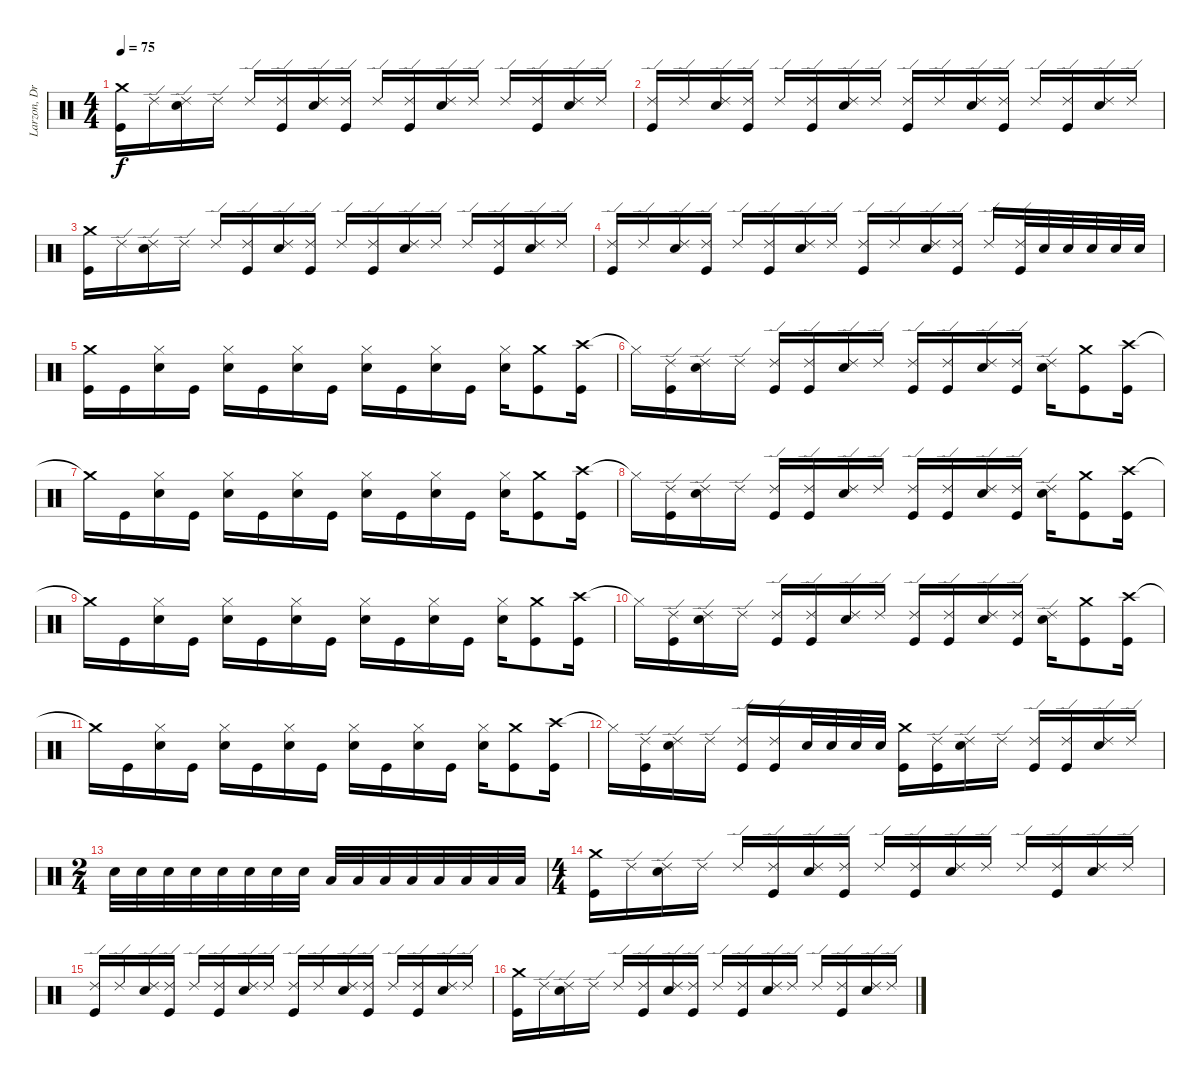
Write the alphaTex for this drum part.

\track ("Larzon, Drums" "Larzon, Dr") {instrument percussion}
\staff {score}
\articulation defaults
\ts (4 4)
\tempo 75
\clef neutral
\ks c
("Crash medium (hit)" "Kick (hit)").16{dy f} "Ride (edge) 2".16 ("Ride (edge) 2" "Snare (hit) 2").16 "Ride (edge) 2".16 "Ride (edge) 2".16 ("Ride (edge) 2" "Kick (hit)").16 ("Ride (edge) 2" "Snare (hit) 2").16 ("Ride (edge) 2" "Kick (hit)").16 "Ride (edge) 2".16 ("Ride (edge) 2" "Kick (hit)").16 ("Ride (edge) 2" "Snare (hit) 2").16 "Ride (edge) 2".16 "Ride (edge) 2".16 ("Ride (edge) 2" "Kick (hit)").16 ("Ride (edge) 2" "Snare (hit) 2").16 "Ride (edge) 2".16 |
("Ride (edge) 2" "Kick (hit)").16 "Ride (edge) 2".16 ("Ride (edge) 2" "Snare (hit) 2").16 ("Ride (edge) 2" "Kick (hit)").16 "Ride (edge) 2".16 ("Ride (edge) 2" "Kick (hit)").16 ("Ride (edge) 2" "Snare (hit) 2").16 "Ride (edge) 2".16 ("Ride (edge) 2" "Kick (hit)").16 "Ride (edge) 2".16 ("Ride (edge) 2" "Snare (hit) 2").16 ("Ride (edge) 2" "Kick (hit)").16 "Ride (edge) 2".16 ("Ride (edge) 2" "Kick (hit)").16 ("Ride (edge) 2" "Snare (hit) 2").16 "Ride (edge) 2".16 |
("Crash medium (hit)" "Kick (hit)").16 "Ride (edge) 2".16 ("Ride (edge) 2" "Snare (hit) 2").16 "Ride (edge) 2".16 "Ride (edge) 2".16 ("Ride (edge) 2" "Kick (hit)").16 ("Ride (edge) 2" "Snare (hit) 2").16 ("Ride (edge) 2" "Kick (hit)").16 "Ride (edge) 2".16 ("Ride (edge) 2" "Kick (hit)").16 ("Ride (edge) 2" "Snare (hit) 2").16 "Ride (edge) 2".16 "Ride (edge) 2".16 ("Ride (edge) 2" "Kick (hit)").16 ("Ride (edge) 2" "Snare (hit) 2").16 "Ride (edge) 2".16 |
("Ride (edge) 2" "Kick (hit)").16 "Ride (edge) 2".16 ("Ride (edge) 2" "Snare (hit) 2").16 ("Ride (edge) 2" "Kick (hit)").16 "Ride (edge) 2".16 ("Ride (edge) 2" "Kick (hit)").16 ("Ride (edge) 2" "Snare (hit) 2").16 "Ride (edge) 2".16 ("Ride (edge) 2" "Kick (hit)").16 "Ride (edge) 2".16 ("Ride (edge) 2" "Snare (hit) 2").16 ("Ride (edge) 2" "Kick (hit)").16 "Ride (edge) 2".16 ("Ride (edge) 2" "Kick (hit)").32 "Snare (hit) 2".32 "Snare (hit) 2".32 "Snare (hit) 2".32 "Snare (hit) 2".32 "Snare (hit) 2".32 |
("Crash medium (hit)" "Kick (hit)").16 "Kick (hit)".16 ("Hi-Hat (closed)" "Snare (hit) 2").16 "Kick (hit)".16 ("Hi-Hat (closed)" "Snare (hit) 2").16 "Kick (hit)".16 ("Hi-Hat (closed)" "Snare (hit) 2").16 "Kick (hit)".16 ("Hi-Hat (closed)" "Snare (hit) 2").16 "Kick (hit)".16 ("Hi-Hat (closed)" "Snare (hit) 2").16 "Kick (hit)".16 ("Hi-Hat (closed)" "Snare (hit) 2").16 ("Crash medium (hit)" "Kick (hit)").8 ("Crash high (hit)" "Kick (hit)").16 |
"Hi-Hat (closed)"{t}.16 ("Ride (edge) 2" "Kick (hit)").16 ("Ride (edge) 2" "Snare (hit) 2").16 "Ride (edge) 2".16 ("Ride (edge) 2" "Kick (hit)").16 ("Ride (edge) 2" "Kick (hit)").16 ("Ride (edge) 2" "Snare (hit) 2").16 "Ride (edge) 2".16 ("Ride (edge) 2" "Kick (hit)").16 ("Ride (edge) 2" "Kick (hit)").16 ("Ride (edge) 2" "Snare (hit) 2").16 ("Ride (edge) 2" "Kick (hit)").16 ("Ride (edge) 2" "Snare (hit) 2").16 ("Crash medium (hit)" "Kick (hit)").8 ("Crash high (hit)" "Kick (hit)").16 |
"Crash medium (hit)"{t}.16 "Kick (hit)".16 ("Hi-Hat (closed)" "Snare (hit) 2").16 "Kick (hit)".16 ("Hi-Hat (closed)" "Snare (hit) 2").16 "Kick (hit)".16 ("Hi-Hat (closed)" "Snare (hit) 2").16 "Kick (hit)".16 ("Hi-Hat (closed)" "Snare (hit) 2").16 "Kick (hit)".16 ("Hi-Hat (closed)" "Snare (hit) 2").16 "Kick (hit)".16 ("Hi-Hat (closed)" "Snare (hit) 2").16 ("Crash medium (hit)" "Kick (hit)").8 ("Crash high (hit)" "Kick (hit)").16 |
"Hi-Hat (closed)"{t}.16 ("Ride (edge) 2" "Kick (hit)").16 ("Ride (edge) 2" "Snare (hit) 2").16 "Ride (edge) 2".16 ("Ride (edge) 2" "Kick (hit)").16 ("Ride (edge) 2" "Kick (hit)").16 ("Ride (edge) 2" "Snare (hit) 2").16 "Ride (edge) 2".16 ("Ride (edge) 2" "Kick (hit)").16 ("Ride (edge) 2" "Kick (hit)").16 ("Ride (edge) 2" "Snare (hit) 2").16 ("Ride (edge) 2" "Kick (hit)").16 ("Ride (edge) 2" "Snare (hit) 2").16 ("Crash medium (hit)" "Kick (hit)").8 ("Crash high (hit)" "Kick (hit)").16 |
"Crash medium (hit)"{t}.16 "Kick (hit)".16 ("Hi-Hat (closed)" "Snare (hit) 2").16 "Kick (hit)".16 ("Hi-Hat (closed)" "Snare (hit) 2").16 "Kick (hit)".16 ("Hi-Hat (closed)" "Snare (hit) 2").16 "Kick (hit)".16 ("Hi-Hat (closed)" "Snare (hit) 2").16 "Kick (hit)".16 ("Hi-Hat (closed)" "Snare (hit) 2").16 "Kick (hit)".16 ("Hi-Hat (closed)" "Snare (hit) 2").16 ("Crash medium (hit)" "Kick (hit)").8 ("Crash high (hit)" "Kick (hit)").16 |
"Hi-Hat (closed)"{t}.16 ("Ride (edge) 2" "Kick (hit)").16 ("Ride (edge) 2" "Snare (hit) 2").16 "Ride (edge) 2".16 ("Ride (edge) 2" "Kick (hit)").16 ("Ride (edge) 2" "Kick (hit)").16 ("Ride (edge) 2" "Snare (hit) 2").16 "Ride (edge) 2".16 ("Ride (edge) 2" "Kick (hit)").16 ("Ride (edge) 2" "Kick (hit)").16 ("Ride (edge) 2" "Snare (hit) 2").16 ("Ride (edge) 2" "Kick (hit)").16 ("Ride (edge) 2" "Snare (hit) 2").16 ("Crash medium (hit)" "Kick (hit)").8 ("Crash high (hit)" "Kick (hit)").16 |
"Crash medium (hit)"{t}.16 "Kick (hit)".16 ("Hi-Hat (closed)" "Snare (hit) 2").16 "Kick (hit)".16 ("Hi-Hat (closed)" "Snare (hit) 2").16 "Kick (hit)".16 ("Hi-Hat (closed)" "Snare (hit) 2").16 "Kick (hit)".16 ("Hi-Hat (closed)" "Snare (hit) 2").16 "Kick (hit)".16 ("Hi-Hat (closed)" "Snare (hit) 2").16 "Kick (hit)".16 ("Hi-Hat (closed)" "Snare (hit) 2").16 ("Crash medium (hit)" "Kick (hit)").8 ("Crash high (hit)" "Kick (hit)").16 |
"Hi-Hat (closed)"{t}.16 ("Ride (edge) 2" "Kick (hit)").16 ("Ride (edge) 2" "Snare (hit) 2").16 "Ride (edge) 2".16 ("Ride (edge) 2" "Kick (hit)").16 ("Ride (edge) 2" "Kick (hit)").16 "Snare (hit) 2".32 "Snare (hit) 2".32 "Snare (hit) 2".32 "Snare (hit) 2".32 ("Crash medium (hit)" "Kick (hit)").16 ("Ride (edge) 2" "Kick (hit)").16 ("Ride (edge) 2" "Snare (hit) 2").16 "Ride (edge) 2".16 ("Ride (edge) 2" "Kick (hit)").16 ("Ride (edge) 2" "Kick (hit)").16 ("Ride (edge) 2" "Snare (hit) 2").16 "Ride (edge) 2".16 |
\ts (2 4)
"Snare (hit) 2".32 "Snare (hit) 2".32 "Snare (hit) 2".32 "Snare (hit) 2".32 "Snare (hit) 2".32 "Snare (hit) 2".32 "Snare (hit) 2".32 "Snare (hit) 2".32 "Low Tom (hit)".32 "Low Tom (hit)".32 "Low Tom (hit)".32 "Low Tom (hit)".32 "Low Floor Tom (hit)".32 "Low Floor Tom (hit)".32 "Low Floor Tom (hit)".32 "Low Floor Tom (hit)".32 |
\ts (4 4)
("Crash medium (hit)" "Kick (hit)").16 "Ride (edge) 2".16 ("Ride (edge) 2" "Snare (hit) 2").16 "Ride (edge) 2".16 "Ride (edge) 2".16 ("Ride (edge) 2" "Kick (hit)").16 ("Ride (edge) 2" "Snare (hit) 2").16 ("Ride (edge) 2" "Kick (hit)").16 "Ride (edge) 2".16 ("Ride (edge) 2" "Kick (hit)").16 ("Ride (edge) 2" "Snare (hit) 2").16 "Ride (edge) 2".16 "Ride (edge) 2".16 ("Ride (edge) 2" "Kick (hit)").16 ("Ride (edge) 2" "Snare (hit) 2").16 "Ride (edge) 2".16 |
("Ride (edge) 2" "Kick (hit)").16 "Ride (edge) 2".16 ("Ride (edge) 2" "Snare (hit) 2").16 ("Ride (edge) 2" "Kick (hit)").16 "Ride (edge) 2".16 ("Ride (edge) 2" "Kick (hit)").16 ("Ride (edge) 2" "Snare (hit) 2").16 "Ride (edge) 2".16 ("Ride (edge) 2" "Kick (hit)").16 "Ride (edge) 2".16 ("Ride (edge) 2" "Snare (hit) 2").16 ("Ride (edge) 2" "Kick (hit)").16 "Ride (edge) 2".16 ("Ride (edge) 2" "Kick (hit)").16 ("Ride (edge) 2" "Snare (hit) 2").16 "Ride (edge) 2".16 |
("Crash medium (hit)" "Kick (hit)").16 "Ride (edge) 2".16 ("Ride (edge) 2" "Snare (hit) 2").16 "Ride (edge) 2".16 "Ride (edge) 2".16 ("Ride (edge) 2" "Kick (hit)").16 ("Ride (edge) 2" "Snare (hit) 2").16 ("Ride (edge) 2" "Kick (hit)").16 "Ride (edge) 2".16 ("Ride (edge) 2" "Kick (hit)").16 ("Ride (edge) 2" "Snare (hit) 2").16 "Ride (edge) 2".16 "Ride (edge) 2".16 ("Ride (edge) 2" "Kick (hit)").16 ("Ride (edge) 2" "Snare (hit) 2").16 "Ride (edge) 2".16
